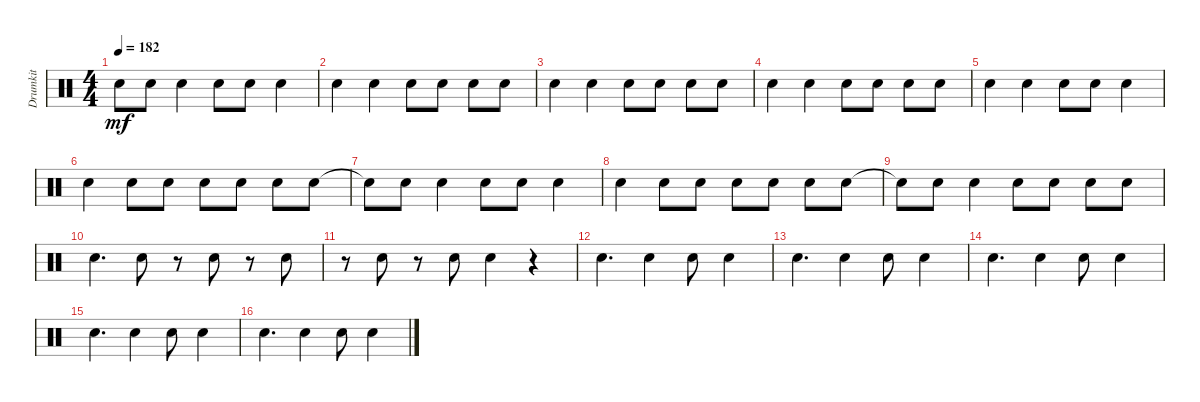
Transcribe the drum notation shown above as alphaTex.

\track ("Drumkit" "Drumkit") {instrument percussion}
\staff {score}
\articulation defaults
\ts (4 4)
\tempo 182
\clef neutral
\ks c "Snare (hit)"{t}.8{dy mf} "Snare (hit)".8 "Snare (hit)".4 "Snare (hit)".8 "Snare (hit)".8 "Snare (hit)".4
|
"Snare (hit)".4 "Snare (hit)".4 "Snare (hit)".8 "Snare (hit)".8 "Snare (hit)".8 "Snare (hit)".8 |
"Snare (hit)".4 "Snare (hit)".4 "Snare (hit)".8 "Snare (hit)".8 "Snare (hit)".8 "Snare (hit)".8 |
"Snare (hit)".4 "Snare (hit)".4 "Snare (hit)".8 "Snare (hit)".8 "Snare (hit)".8 "Snare (hit)".8 |
"Snare (hit)".4 "Snare (hit)".4 "Snare (hit)".8 "Snare (hit)".8 "Snare (hit)".4 |
"Snare (hit)".4 "Snare (hit)".8 "Snare (hit)".8 "Snare (hit)".8 "Snare (hit)".8 "Snare (hit)".8 "Snare (hit)".8 |
"Snare (hit)"{t}.8 "Snare (hit)".8 "Snare (hit)".4 "Snare (hit)".8 "Snare (hit)".8 "Snare (hit)".4 |
"Snare (hit)".4 "Snare (hit)".8 "Snare (hit)".8 "Snare (hit)".8 "Snare (hit)".8 "Snare (hit)".8 "Snare (hit)".8 |
"Snare (hit)"{t}.8 "Snare (hit)".8 "Snare (hit)".4 "Snare (hit)".8 "Snare (hit)".8 "Snare (hit)".8 "Snare (hit)".8 |
"Snare (hit)".4{d} "Snare (hit)".8 r.8 "Snare (hit)".8 r.8 "Snare (hit)".8 |
r.8 "Snare (hit)".8 r.8 "Snare (hit)".8 "Snare (hit)".4 r.4 |
"Snare (hit)".4{d} "Snare (hit)".4 "Snare (hit)".8 "Snare (hit)".4 |
"Snare (hit)".4{d} "Snare (hit)".4 "Snare (hit)".8 "Snare (hit)".4 |
"Snare (hit)".4{d} "Snare (hit)".4 "Snare (hit)".8 "Snare (hit)".4 |
"Snare (hit)".4{d} "Snare (hit)".4 "Snare (hit)".8 "Snare (hit)".4 |
"Snare (hit)".4{d} "Snare (hit)".4 "Snare (hit)".8 "Snare (hit)".4
